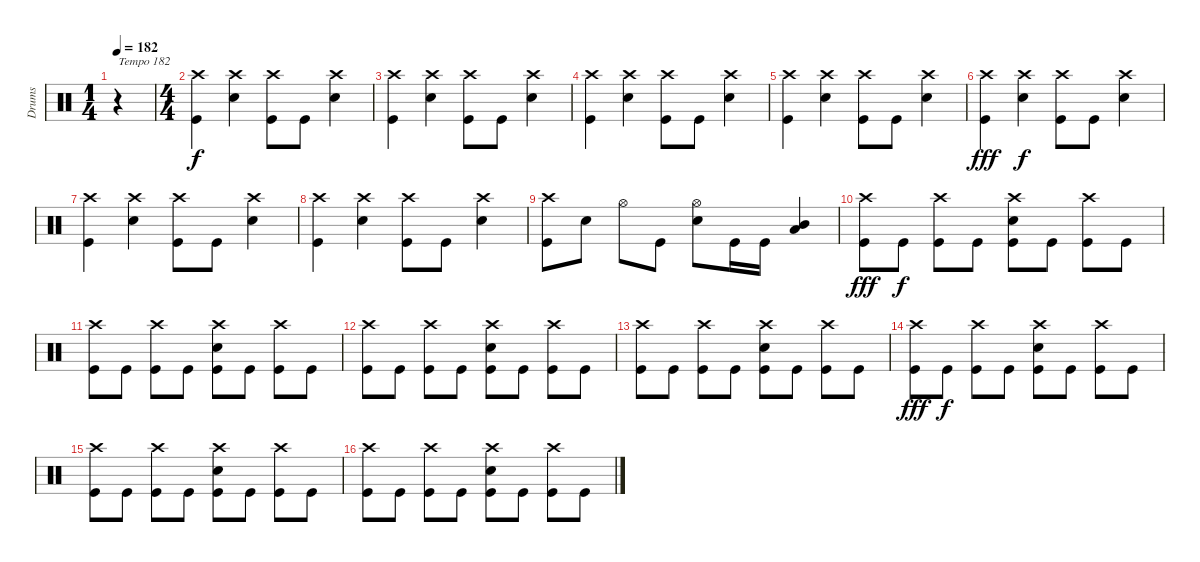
\track ("Drums" "Drums") {instrument percussion}
\staff {score}
\articulation defaults
\ts (1 4)
\tempo 182
\clef neutral
\ks c
r.4{txt "Tempo 182" dy f} |
\ts (4 4)
("Crash high (hit)" "Kick (hit)").4 ("Crash high (hit)" "Electric Snare (hit)").4 ("Crash high (hit)" "Kick (hit)").8 "Kick (hit)".8 ("Crash high (hit)" "Electric Snare (hit)").4 |
("Crash high (hit)" "Kick (hit)").4 ("Crash high (hit)" "Electric Snare (hit)").4 ("Crash high (hit)" "Kick (hit)").8 "Kick (hit)".8 ("Crash high (hit)" "Electric Snare (hit)").4 |
("Crash high (hit)" "Kick (hit)").4 ("Crash high (hit)" "Electric Snare (hit)").4 ("Crash high (hit)" "Kick (hit)").8 "Kick (hit)".8 ("Crash high (hit)" "Electric Snare (hit)").4 |
("Crash high (hit)" "Kick (hit)").4 ("Crash high (hit)" "Electric Snare (hit)").4 ("Crash high (hit)" "Kick (hit)").8 "Kick (hit)".8 ("Crash high (hit)" "Electric Snare (hit)").4 |
("Crash high (hit)" "Kick (hit)").4{dy fff} ("Crash high (hit)" "Electric Snare (hit)").4{dy f} ("Crash high (hit)" "Kick (hit)").8 "Kick (hit)".8 ("Crash high (hit)" "Electric Snare (hit)").4 |
("Crash high (hit)" "Kick (hit)").4 ("Crash high (hit)" "Electric Snare (hit)").4 ("Crash high (hit)" "Kick (hit)").8 "Kick (hit)".8 ("Crash high (hit)" "Electric Snare (hit)").4 |
("Crash high (hit)" "Kick (hit)").4 ("Crash high (hit)" "Electric Snare (hit)").4 ("Crash high (hit)" "Kick (hit)").8 "Kick (hit)".8 ("Crash high (hit)" "Electric Snare (hit)").4 |
("Crash high (hit)" "Kick (hit)").8 "Electric Snare (hit)".8 "Hi-Hat (open)".8 "Kick (hit)".8 ("Hi-Hat (open)" "Electric Snare (hit)").8 "Kick (hit)".16 "Kick (hit)".16 ("Mid Tom (hit)" "Low Tom (hit)").4 |
("Crash high (hit)" "Kick (hit)").8{dy fff} "Kick (hit)".8{dy f} ("Crash high (hit)" "Kick (hit)").8 "Kick (hit)".8 ("Electric Snare (hit)" "Crash high (hit)" "Kick (hit)").8 "Kick (hit)".8 ("Crash high (hit)" "Kick (hit)").8 "Kick (hit)".8 |
("Crash high (hit)" "Kick (hit)").8 "Kick (hit)".8 ("Crash high (hit)" "Kick (hit)").8 "Kick (hit)".8 ("Electric Snare (hit)" "Crash high (hit)" "Kick (hit)").8 "Kick (hit)".8 ("Crash high (hit)" "Kick (hit)").8 "Kick (hit)".8 |
("Crash high (hit)" "Kick (hit)").8 "Kick (hit)".8 ("Crash high (hit)" "Kick (hit)").8 "Kick (hit)".8 ("Electric Snare (hit)" "Crash high (hit)" "Kick (hit)").8 "Kick (hit)".8 ("Crash high (hit)" "Kick (hit)").8 "Kick (hit)".8 |
("Crash high (hit)" "Kick (hit)").8 "Kick (hit)".8 ("Crash high (hit)" "Kick (hit)").8 "Kick (hit)".8 ("Electric Snare (hit)" "Crash high (hit)" "Kick (hit)").8 "Kick (hit)".8 ("Crash high (hit)" "Kick (hit)").8 "Kick (hit)".8 |
("Crash high (hit)" "Kick (hit)").8{dy fff} "Kick (hit)".8{dy f} ("Crash high (hit)" "Kick (hit)").8 "Kick (hit)".8 ("Electric Snare (hit)" "Crash high (hit)" "Kick (hit)").8 "Kick (hit)".8 ("Crash high (hit)" "Kick (hit)").8 "Kick (hit)".8 |
("Crash high (hit)" "Kick (hit)").8 "Kick (hit)".8 ("Crash high (hit)" "Kick (hit)").8 "Kick (hit)".8 ("Electric Snare (hit)" "Crash high (hit)" "Kick (hit)").8 "Kick (hit)".8 ("Crash high (hit)" "Kick (hit)").8 "Kick (hit)".8 |
("Crash high (hit)" "Kick (hit)").8 "Kick (hit)".8 ("Crash high (hit)" "Kick (hit)").8 "Kick (hit)".8 ("Electric Snare (hit)" "Crash high (hit)" "Kick (hit)").8 "Kick (hit)".8 ("Crash high (hit)" "Kick (hit)").8 "Kick (hit)".8
